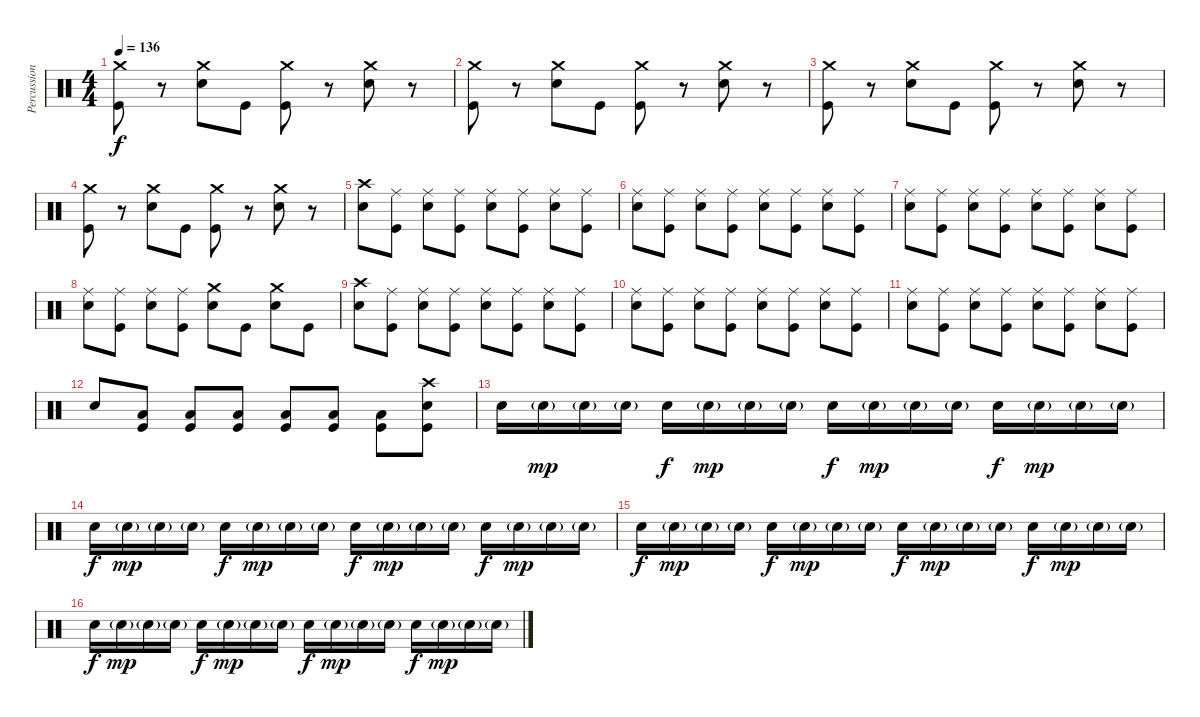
\track ("Percussion" "Percussion") {instrument percussion}
\staff {score}
\articulation defaults
\ts (4 4)
\tempo 136
\clef neutral
\ks c
("Crash medium (hit)" "Kick (hit)").8{dy f} r.8 ("Crash medium (hit)" "Electric Snare (hit)").8 "Kick (hit)".8 ("Crash medium (hit)" "Kick (hit)").8 r.8 ("Crash medium (hit)" "Electric Snare (hit)").8 r.8 |
("Crash medium (hit)" "Kick (hit)").8 r.8 ("Crash medium (hit)" "Electric Snare (hit)").8 "Kick (hit)".8 ("Crash medium (hit)" "Kick (hit)").8 r.8 ("Crash medium (hit)" "Electric Snare (hit)").8 r.8 |
("Crash medium (hit)" "Kick (hit)").8 r.8 ("Crash medium (hit)" "Electric Snare (hit)").8 "Kick (hit)".8 ("Crash medium (hit)" "Kick (hit)").8 r.8 ("Crash medium (hit)" "Electric Snare (hit)").8 r.8 |
("Crash medium (hit)" "Kick (hit)").8 r.8 ("Crash medium (hit)" "Electric Snare (hit)").8 "Kick (hit)".8 ("Crash medium (hit)" "Kick (hit)").8 r.8 ("Crash medium (hit)" "Electric Snare (hit)").8 r.8 |
("Crash high (hit)" "Electric Snare (hit)").8 ("Ride (middle)" "Kick (hit)").8 ("Ride (middle)" "Electric Snare (hit)").8 ("Ride (middle)" "Kick (hit)").8 ("Ride (middle)" "Electric Snare (hit)").8 ("Ride (middle)" "Kick (hit)").8 ("Ride (middle)" "Electric Snare (hit)").8 ("Ride (middle)" "Kick (hit)").8 |
("Ride (middle)" "Electric Snare (hit)").8 ("Ride (middle)" "Kick (hit)").8 ("Ride (middle)" "Electric Snare (hit)").8 ("Ride (middle)" "Kick (hit)").8 ("Ride (middle)" "Electric Snare (hit)").8 ("Ride (middle)" "Kick (hit)").8 ("Ride (middle)" "Electric Snare (hit)").8 ("Ride (middle)" "Kick (hit)").8 |
("Ride (middle)" "Electric Snare (hit)").8 ("Ride (middle)" "Kick (hit)").8 ("Ride (middle)" "Electric Snare (hit)").8 ("Ride (middle)" "Kick (hit)").8 ("Ride (middle)" "Electric Snare (hit)").8 ("Ride (middle)" "Kick (hit)").8 ("Ride (middle)" "Electric Snare (hit)").8 ("Ride (middle)" "Kick (hit)").8 |
("Ride (middle)" "Electric Snare (hit)").8 ("Ride (middle)" "Kick (hit)").8 ("Ride (middle)" "Electric Snare (hit)").8 ("Ride (middle)" "Kick (hit)").8 ("Crash medium (hit)" "Electric Snare (hit)").8 "Kick (hit)".8 ("Crash medium (hit)" "Electric Snare (hit)").8 "Kick (hit)".8 |
("Crash high (hit)" "Electric Snare (hit)").8 ("Ride (middle)" "Kick (hit)").8 ("Ride (middle)" "Electric Snare (hit)").8 ("Ride (middle)" "Kick (hit)").8 ("Ride (middle)" "Electric Snare (hit)").8 ("Ride (middle)" "Kick (hit)").8 ("Ride (middle)" "Electric Snare (hit)").8 ("Ride (middle)" "Kick (hit)").8 |
("Ride (middle)" "Electric Snare (hit)").8 ("Ride (middle)" "Kick (hit)").8 ("Ride (middle)" "Electric Snare (hit)").8 ("Ride (middle)" "Kick (hit)").8 ("Ride (middle)" "Electric Snare (hit)").8 ("Ride (middle)" "Kick (hit)").8 ("Ride (middle)" "Electric Snare (hit)").8 ("Ride (middle)" "Kick (hit)").8 |
("Ride (middle)" "Electric Snare (hit)").8 ("Ride (middle)" "Kick (hit)").8 ("Ride (middle)" "Electric Snare (hit)").8 ("Ride (middle)" "Kick (hit)").8 ("Ride (middle)" "Electric Snare (hit)").8 ("Ride (middle)" "Kick (hit)").8 ("Ride (middle)" "Electric Snare (hit)").8 ("Ride (middle)" "Kick (hit)").8 |
"Electric Snare (hit)".8 ("Low Floor Tom (hit)" "Kick (hit)").8 ("Low Floor Tom (hit)" "Kick (hit)").8 ("Low Floor Tom (hit)" "Kick (hit)").8 ("Low Floor Tom (hit)" "Kick (hit)").8 ("Low Floor Tom (hit)" "Kick (hit)").8 ("Low Floor Tom (hit)" "Kick (hit)").8 ("Crash high (hit)" "Electric Snare (hit)" "Kick (hit)").8 |
"Electric Snare (hit)".16 "Electric Snare (hit)"{g}.16{dy mp} "Electric Snare (hit)"{g}.16 "Electric Snare (hit)"{g}.16 "Electric Snare (hit)".16{dy f} "Electric Snare (hit)"{g}.16{dy mp} "Electric Snare (hit)"{g}.16 "Electric Snare (hit)"{g}.16 "Electric Snare (hit)".16{dy f} "Electric Snare (hit)"{g}.16{dy mp} "Electric Snare (hit)"{g}.16 "Electric Snare (hit)"{g}.16 "Electric Snare (hit)".16{dy f} "Electric Snare (hit)"{g}.16{dy mp} "Electric Snare (hit)"{g}.16 "Electric Snare (hit)"{g}.16 |
"Electric Snare (hit)".16{dy f} "Electric Snare (hit)"{g}.16{dy mp} "Electric Snare (hit)"{g}.16 "Electric Snare (hit)"{g}.16 "Electric Snare (hit)".16{dy f} "Electric Snare (hit)"{g}.16{dy mp} "Electric Snare (hit)"{g}.16 "Electric Snare (hit)"{g}.16 "Electric Snare (hit)".16{dy f} "Electric Snare (hit)"{g}.16{dy mp} "Electric Snare (hit)"{g}.16 "Electric Snare (hit)"{g}.16 "Electric Snare (hit)".16{dy f} "Electric Snare (hit)"{g}.16{dy mp} "Electric Snare (hit)"{g}.16 "Electric Snare (hit)"{g}.16 |
"Electric Snare (hit)".16{dy f} "Electric Snare (hit)"{g}.16{dy mp} "Electric Snare (hit)"{g}.16 "Electric Snare (hit)"{g}.16 "Electric Snare (hit)".16{dy f} "Electric Snare (hit)"{g}.16{dy mp} "Electric Snare (hit)"{g}.16 "Electric Snare (hit)"{g}.16 "Electric Snare (hit)".16{dy f} "Electric Snare (hit)"{g}.16{dy mp} "Electric Snare (hit)"{g}.16 "Electric Snare (hit)"{g}.16 "Electric Snare (hit)".16{dy f} "Electric Snare (hit)"{g}.16{dy mp} "Electric Snare (hit)"{g}.16 "Electric Snare (hit)"{g}.16 |
"Electric Snare (hit)".16{dy f} "Electric Snare (hit)"{g}.16{dy mp} "Electric Snare (hit)"{g}.16 "Electric Snare (hit)"{g}.16 "Electric Snare (hit)".16{dy f} "Electric Snare (hit)"{g}.16{dy mp} "Electric Snare (hit)"{g}.16 "Electric Snare (hit)"{g}.16 "Electric Snare (hit)".16{dy f} "Electric Snare (hit)"{g}.16{dy mp} "Electric Snare (hit)"{g}.16 "Electric Snare (hit)"{g}.16 "Electric Snare (hit)".16{dy f} "Electric Snare (hit)"{g}.16{dy mp} "Electric Snare (hit)"{g}.16 "Electric Snare (hit)"{g}.16
